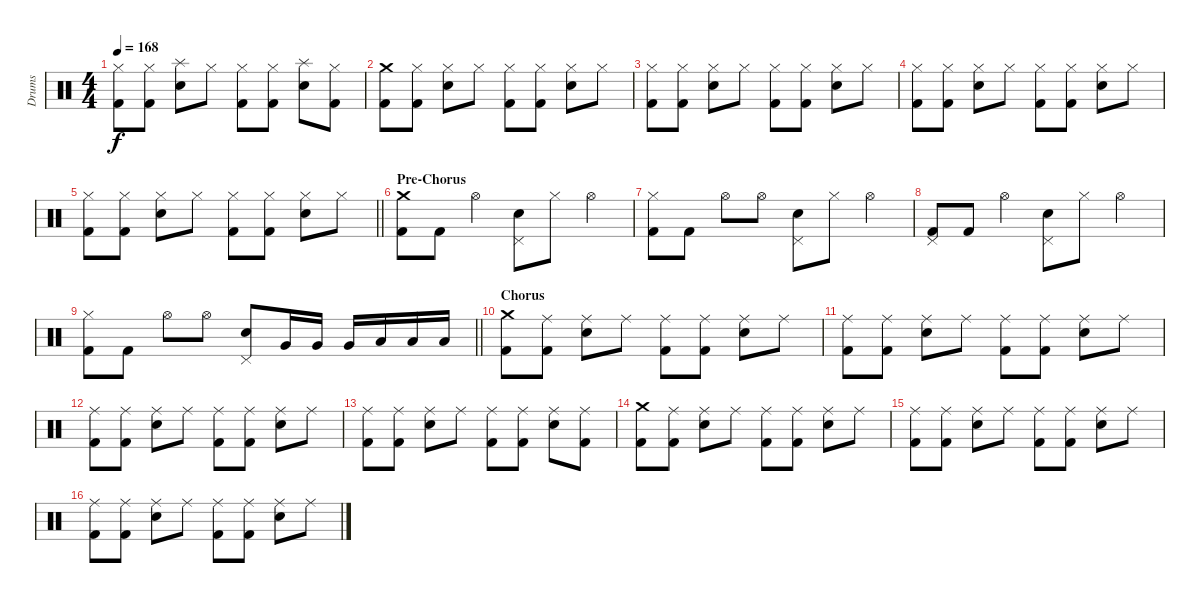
\track ("Drums" "Drums") {instrument percussion}
\staff {score}
\articulation defaults
\ts (4 4)
\tempo 168
\clef neutral
\ks c
("Hi-Hat (closed)" "Kick (hit) 2").8{dy f} ("Hi-Hat (closed)" "Kick (hit) 2").8 ("Splash (hit)" "Electric Snare (hit)").8 "Hi-Hat (closed)".8 ("Hi-Hat (closed)" "Kick (hit) 2").8 ("Hi-Hat (closed)" "Kick (hit) 2").8 ("Splash (hit)" "Electric Snare (hit)").8 ("Hi-Hat (closed)" "Kick (hit) 2").8 |
("Crash medium (hit)" "Kick (hit) 2").8 ("Hi-Hat (closed)" "Kick (hit) 2").8 ("Hi-Hat (closed)" "Electric Snare (hit)").8 "Hi-Hat (closed)".8 ("Hi-Hat (closed)" "Kick (hit) 2").8 ("Hi-Hat (closed)" "Kick (hit) 2").8 ("Hi-Hat (closed)" "Electric Snare (hit)").8 "Hi-Hat (closed)".8 |
("Hi-Hat (closed)" "Kick (hit) 2").8 ("Hi-Hat (closed)" "Kick (hit) 2").8 ("Hi-Hat (closed)" "Electric Snare (hit)").8 "Hi-Hat (closed)".8 ("Hi-Hat (closed)" "Kick (hit) 2").8 ("Hi-Hat (closed)" "Kick (hit) 2").8 ("Hi-Hat (closed)" "Electric Snare (hit)").8 "Hi-Hat (closed)".8 |
("Hi-Hat (closed)" "Kick (hit) 2").8 ("Hi-Hat (closed)" "Kick (hit) 2").8 ("Hi-Hat (closed)" "Electric Snare (hit)").8 "Hi-Hat (closed)".8 ("Hi-Hat (closed)" "Kick (hit) 2").8 ("Hi-Hat (closed)" "Kick (hit) 2").8 ("Hi-Hat (closed)" "Electric Snare (hit)").8 "Hi-Hat (closed)".8 |
\barLineRight lightlight
("Hi-Hat (closed)" "Kick (hit) 2").8 ("Hi-Hat (closed)" "Kick (hit) 2").8 ("Hi-Hat (closed)" "Electric Snare (hit)").8 "Hi-Hat (closed)".8 ("Hi-Hat (closed)" "Kick (hit) 2").8 ("Hi-Hat (closed)" "Kick (hit) 2").8 ("Hi-Hat (closed)" "Electric Snare (hit)").8 "Hi-Hat (closed)".8 |
\section ("" "Pre-Chorus")
("Crash medium (hit)" "Kick (hit) 2").8 "Kick (hit) 2".8 "Hi-Hat (open)".4 ("Pedal Hi-Hat (hit)" "Electric Snare (hit)").8 "Hi-Hat (closed)".8 "Hi-Hat (open)".4 |
("Hi-Hat (closed)" "Kick (hit) 2").8 "Kick (hit) 2".8 "Hi-Hat (open)".8 "Hi-Hat (open)".8 ("Pedal Hi-Hat (hit)" "Electric Snare (hit)").8 "Hi-Hat (closed)".8 "Hi-Hat (open)".4 |
("Pedal Hi-Hat (hit)" "Kick (hit) 2").8 "Kick (hit) 2".8 "Hi-Hat (open)".4 ("Pedal Hi-Hat (hit)" "Electric Snare (hit)").8 "Hi-Hat (closed)".8 "Hi-Hat (open)".4 |
\barLineRight lightlight
("Hi-Hat (closed)" "Kick (hit) 2").8 "Kick (hit) 2".8 "Hi-Hat (open)".8 "Hi-Hat (open)".8 ("Pedal Hi-Hat (hit)" "Electric Snare (hit)").8 "Very Low Tom (hit)".16 "Very Low Tom (hit)".16 "Very Low Tom (hit)".16 "Low Floor Tom (hit)".16 "Low Floor Tom (hit)".16 "Low Tom (hit)".16 |
\section ("" "Chorus")
("Crash medium (hit)" "Kick (hit) 2").8 ("Ride (middle)" "Kick (hit) 2").8 ("Ride (middle)" "Electric Snare (hit)").8 "Ride (middle)".8 ("Ride (middle)" "Kick (hit) 2").8 ("Ride (middle)" "Kick (hit) 2").8 ("Ride (middle)" "Electric Snare (hit)").8 "Ride (middle)".8 |
("Ride (middle)" "Kick (hit) 2").8 ("Ride (middle)" "Kick (hit) 2").8 ("Ride (middle)" "Electric Snare (hit)").8 "Ride (middle)".8 ("Ride (middle)" "Kick (hit) 2").8 ("Ride (middle)" "Kick (hit) 2").8 ("Ride (middle)" "Electric Snare (hit)").8 "Ride (middle)".8 |
("Ride (middle)" "Kick (hit) 2").8 ("Ride (middle)" "Kick (hit) 2").8 ("Ride (middle)" "Electric Snare (hit)").8 "Ride (middle)".8 ("Ride (middle)" "Kick (hit) 2").8 ("Ride (middle)" "Kick (hit) 2").8 ("Ride (middle)" "Electric Snare (hit)").8 "Ride (middle)".8 |
("Ride (middle)" "Kick (hit) 2").8 ("Ride (middle)" "Kick (hit) 2").8 ("Ride (middle)" "Electric Snare (hit)").8 "Ride (middle)".8 ("Ride (middle)" "Kick (hit) 2").8 ("Ride (middle)" "Kick (hit) 2").8 ("Ride (middle)" "Electric Snare (hit)").8 ("Ride (middle)" "Kick (hit) 2").8 |
("Crash medium (hit)" "Kick (hit) 2").8 ("Ride (middle)" "Kick (hit) 2").8 ("Ride (middle)" "Electric Snare (hit)").8 "Ride (middle)".8 ("Ride (middle)" "Kick (hit) 2").8 ("Ride (middle)" "Kick (hit) 2").8 ("Ride (middle)" "Electric Snare (hit)").8 "Ride (middle)".8 |
("Ride (middle)" "Kick (hit) 2").8 ("Ride (middle)" "Kick (hit) 2").8 ("Ride (middle)" "Electric Snare (hit)").8 "Ride (middle)".8 ("Ride (middle)" "Kick (hit) 2").8 ("Ride (middle)" "Kick (hit) 2").8 ("Ride (middle)" "Electric Snare (hit)").8 "Ride (middle)".8 |
("Ride (middle)" "Kick (hit) 2").8 ("Ride (middle)" "Kick (hit) 2").8 ("Ride (middle)" "Electric Snare (hit)").8 "Ride (middle)".8 ("Ride (middle)" "Kick (hit) 2").8 ("Ride (middle)" "Kick (hit) 2").8 ("Ride (middle)" "Electric Snare (hit)").8 "Ride (middle)".8
